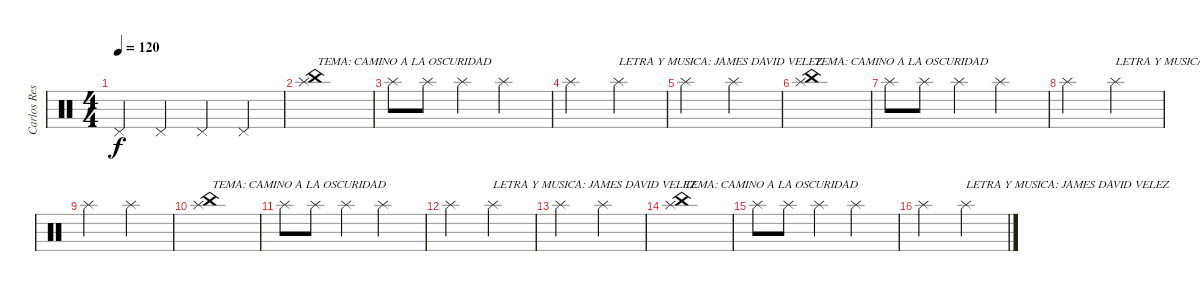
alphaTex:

\track ("Carlos Restrepo" "Carlos Res") {instrument percussion}
\staff {score}
\articulation defaults
\ts (4 4)
\tempo 120
\clef neutral
\ks c "Pedal Hi-Hat (hit)".4{dy f} "Pedal Hi-Hat (hit)".4 "Pedal Hi-Hat (hit)".4 "Pedal Hi-Hat (hit)".4
|
("Splash (hit)" "China (hit)").1{txt "TEMA: CAMINO A LA OSCURIDAD"} |
"Splash (hit)".8 "Splash (hit)".8 "Splash (hit)".4 "Splash (hit)".2 |
"Splash (hit)".2 "Splash (hit)".2{txt "LETRA Y MUSICA: JAMES DAVID VELEZ "} |
"Splash (hit)".2 "Splash (hit)".2 |
("Splash (hit)" "China (hit)").1{txt "TEMA: CAMINO A LA OSCURIDAD"} |
"Splash (hit)".8 "Splash (hit)".8 "Splash (hit)".4 "Splash (hit)".2 |
"Splash (hit)".2 "Splash (hit)".2{txt "LETRA Y MUSICA: JAMES DAVID VELEZ "} |
"Splash (hit)".2 "Splash (hit)".2 |
("Splash (hit)" "China (hit)").1{txt "TEMA: CAMINO A LA OSCURIDAD"} |
"Splash (hit)".8 "Splash (hit)".8 "Splash (hit)".4 "Splash (hit)".2 |
"Splash (hit)".2 "Splash (hit)".2{txt "LETRA Y MUSICA: JAMES DAVID VELEZ "} |
"Splash (hit)".2 "Splash (hit)".2 |
("Splash (hit)" "China (hit)").1{txt "TEMA: CAMINO A LA OSCURIDAD"} |
"Splash (hit)".8 "Splash (hit)".8 "Splash (hit)".4 "Splash (hit)".2 |
"Splash (hit)".2 "Splash (hit)".2{txt "LETRA Y MUSICA: JAMES DAVID VELEZ "}
